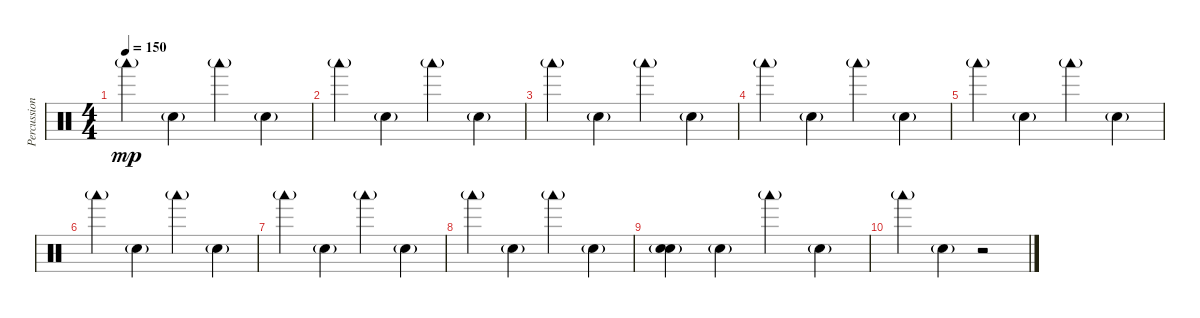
\track ("Percussion" "Percussion") {instrument percussion}
\staff {score}
\articulation defaults
\ts (4 4)
\tempo 150
\clef neutral
\ks c "Woodblock low (hit)"{g}.4{dy mp} "Snare (hit) 2"{g}.4 "Woodblock low (hit)"{g}.4 "Snare (hit) 2"{g}.4
|
"Woodblock low (hit)"{g}.4 "Snare (hit) 2"{g}.4 "Woodblock low (hit)"{g}.4 "Snare (hit) 2"{g}.4 |
"Woodblock low (hit)"{g}.4 "Snare (hit) 2"{g}.4 "Woodblock low (hit)"{g}.4 "Snare (hit) 2"{g}.4 |
"Woodblock low (hit)"{g}.4 "Snare (hit) 2"{g}.4 "Woodblock low (hit)"{g}.4 "Snare (hit) 2"{g}.4 |
"Woodblock low (hit)"{g}.4 "Snare (hit) 2"{g}.4 "Woodblock low (hit)"{g}.4 "Snare (hit) 2"{g}.4 |
"Woodblock low (hit)"{g}.4 "Snare (hit) 2"{g}.4 "Woodblock low (hit)"{g}.4 "Snare (hit) 2"{g}.4 |
"Woodblock low (hit)"{g}.4 "Snare (hit) 2"{g}.4 "Woodblock low (hit)"{g}.4 "Snare (hit) 2"{g}.4 |
"Woodblock low (hit)"{g}.4 "Snare (hit) 2"{g}.4 "Woodblock low (hit)"{g}.4 "Snare (hit) 2"{g}.4 |
("Snare (hit) 2" "Snare (hit) 2"{g}).4 "Snare (hit) 2"{g}.4 "Woodblock low (hit)"{g}.4 "Snare (hit) 2"{g}.4 |
"Woodblock low (hit)"{g}.4 "Snare (hit) 2"{g}.4 r.2
